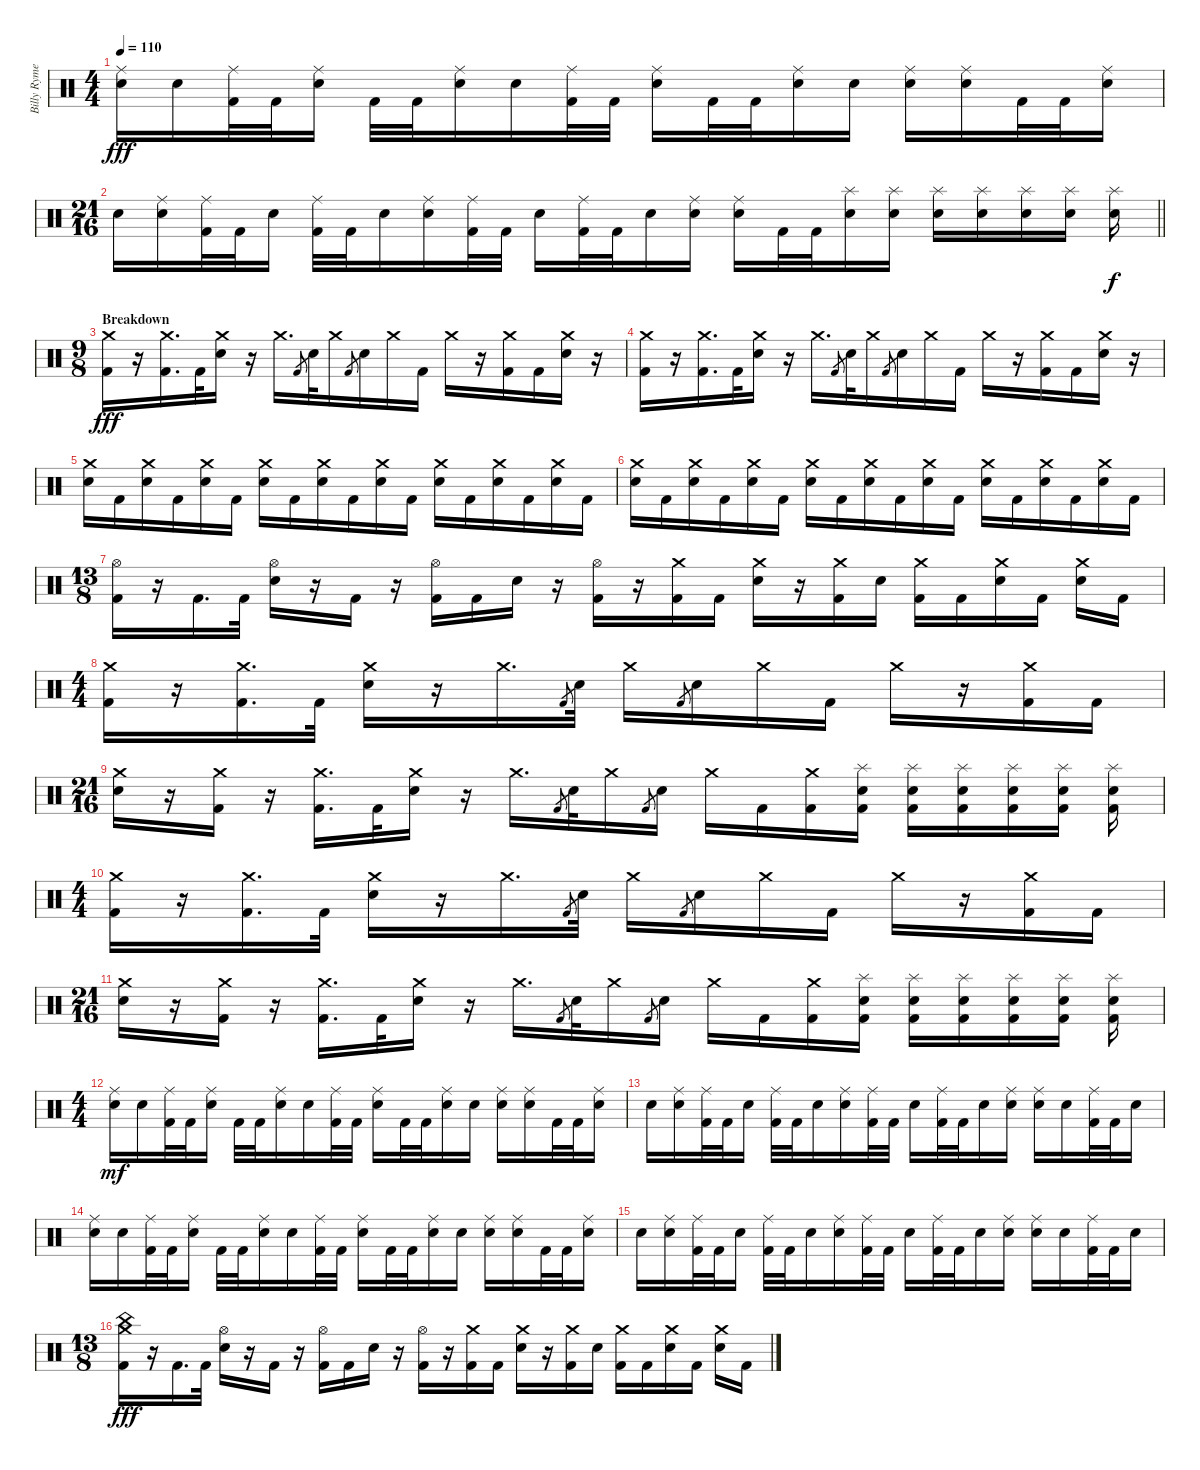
\track ("Billy Rymer" "Billy Ryme") {instrument percussion}
\staff {score}
\articulation defaults
\ts (4 4)
\tempo 110
\clef neutral
\ks c
("Ride (middle)" "Electric Snare (hit)").16{dy fff} "Electric Snare (hit)".16 ("Ride (middle)" "Kick (hit) 2").32 "Kick (hit) 2".32 ("Ride (middle)" "Electric Snare (hit)").16 "Kick (hit) 2".32 "Kick (hit) 2".32 ("Ride (middle)" "Electric Snare (hit)").16 "Electric Snare (hit)".16 ("Ride (middle)" "Kick (hit) 2").32 "Kick (hit) 2".32 ("Ride (middle)" "Electric Snare (hit)").16 "Kick (hit) 2".32 "Kick (hit) 2".32 ("Ride (middle)" "Electric Snare (hit)").16 "Electric Snare (hit)".16 ("Ride (middle)" "Electric Snare (hit)").16 ("Ride (middle)" "Electric Snare (hit)").16 "Kick (hit) 2".32 "Kick (hit) 2".32 ("Ride (middle)" "Electric Snare (hit)").16 |
\ts (21 16)
\barLineRight lightlight "Electric Snare (hit)".16
("Ride (middle)" "Electric Snare (hit)").16 ("Ride (middle)" "Kick (hit) 2").32 "Kick (hit) 2".32 "Electric Snare (hit)".16 ("Ride (middle)" "Kick (hit) 2").32 "Kick (hit) 2".32 "Electric Snare (hit)".16 ("Ride (middle)" "Electric Snare (hit)").16 ("Ride (middle)" "Kick (hit) 2").32 "Kick (hit) 2".32 "Electric Snare (hit)".16 ("Ride (middle)" "Kick (hit) 2").32 "Kick (hit) 2".32 "Electric Snare (hit)".16 ("Ride (middle)" "Electric Snare (hit)").16 ("Ride (middle)" "Electric Snare (hit)").16 "Kick (hit) 2".32 "Kick (hit) 2".32 ("Splash (hit)" "Electric Snare (hit)").16 ("Splash (hit)" "Electric Snare (hit)").16 ("Splash (hit)" "Electric Snare (hit)").16 ("Splash (hit)" "Electric Snare (hit)").16 ("Splash (hit)" "Electric Snare (hit)").16 ("Splash (hit)" "Electric Snare (hit)").16 ("Splash (hit)" "Electric Snare (hit)").16{dy f} |
\ts (9 8)
\section ("" "Breakdown")
("Crash medium (hit)" "Kick (hit) 2").16{dy fff} r.16 ("Crash medium (hit)" "Kick (hit) 2").16{d} "Kick (hit) 2".32 ("Crash medium (hit)" "Electric Snare (hit)").16 r.16 "Crash medium (hit)".16{d} "Kick (hit) 2".8{gr} "Electric Snare (hit)".32 "Crash medium (hit)".16 "Kick (hit) 2".8{gr} "Electric Snare (hit)".16 "Crash medium (hit)".16 "Kick (hit) 2".16 "Crash medium (hit)".16 r.16 ("Crash medium (hit)" "Kick (hit) 2").16 "Kick (hit) 2".16 ("Crash medium (hit)" "Electric Snare (hit)").16 r.16 |
("Crash medium (hit)" "Kick (hit) 2").16 r.16 ("Crash medium (hit)" "Kick (hit) 2").16{d} "Kick (hit) 2".32 ("Crash medium (hit)" "Electric Snare (hit)").16 r.16 "Crash medium (hit)".16{d} "Kick (hit) 2".8{gr} "Electric Snare (hit)".32 "Crash medium (hit)".16 "Kick (hit) 2".8{gr} "Electric Snare (hit)".16 "Crash medium (hit)".16 "Kick (hit) 2".16 "Crash medium (hit)".16 r.16 ("Crash medium (hit)" "Kick (hit) 2").16 "Kick (hit) 2".16 ("Crash medium (hit)" "Electric Snare (hit)").16 r.16 |
("Crash medium (hit)" "Electric Snare (hit)").16 "Kick (hit) 2".16 ("Crash medium (hit)" "Electric Snare (hit)").16 "Kick (hit) 2".16 ("Crash medium (hit)" "Electric Snare (hit)").16 "Kick (hit) 2".16 ("Crash medium (hit)" "Electric Snare (hit)").16 "Kick (hit) 2".16 ("Crash medium (hit)" "Electric Snare (hit)").16 "Kick (hit) 2".16 ("Crash medium (hit)" "Electric Snare (hit)").16 "Kick (hit) 2".16 ("Crash medium (hit)" "Electric Snare (hit)").16 "Kick (hit) 2".16 ("Crash medium (hit)" "Electric Snare (hit)").16 "Kick (hit) 2".16 ("Crash medium (hit)" "Electric Snare (hit)").16 "Kick (hit) 2".16 |
("Crash medium (hit)" "Electric Snare (hit)").16 "Kick (hit) 2".16 ("Crash medium (hit)" "Electric Snare (hit)").16 "Kick (hit) 2".16 ("Crash medium (hit)" "Electric Snare (hit)").16 "Kick (hit) 2".16 ("Crash medium (hit)" "Electric Snare (hit)").16 "Kick (hit) 2".16 ("Crash medium (hit)" "Electric Snare (hit)").16 "Kick (hit) 2".16 ("Crash medium (hit)" "Electric Snare (hit)").16 "Kick (hit) 2".16 ("Crash medium (hit)" "Electric Snare (hit)").16 "Kick (hit) 2".16 ("Crash medium (hit)" "Electric Snare (hit)").16 "Kick (hit) 2".16 ("Crash medium (hit)" "Electric Snare (hit)").16 "Kick (hit) 2".16 |
\ts (13 8)
("Hi-Hat (open)" "Kick (hit) 2").16 r.16 "Kick (hit) 2".16{d} "Kick (hit) 2".32 ("Hi-Hat (open)" "Electric Snare (hit)").16 r.16 "Kick (hit) 2".16 r.16 ("Hi-Hat (open)" "Kick (hit) 2").16 "Kick (hit) 2".16 "Electric Snare (hit)".16 r.16 ("Hi-Hat (open)" "Kick (hit) 2").16 r.16 ("Crash medium (hit)" "Kick (hit) 2").16 "Kick (hit) 2".16 ("Crash medium (hit)" "Electric Snare (hit)").16 r.16 ("Crash medium (hit)" "Kick (hit) 2").16 "Electric Snare (hit)".16 ("Crash medium (hit)" "Kick (hit) 2").16 "Kick (hit) 2".16 ("Crash medium (hit)" "Electric Snare (hit)").16 "Kick (hit) 2".16 ("Crash medium (hit)" "Electric Snare (hit)").16 "Kick (hit) 2".16 |
\ts (4 4)
("Crash medium (hit)" "Kick (hit) 2").16 r.16 ("Crash medium (hit)" "Kick (hit) 2").16{d} "Kick (hit) 2".32 ("Crash medium (hit)" "Electric Snare (hit)").16 r.16 "Crash medium (hit)".16{d} "Kick (hit) 2".8{gr} "Electric Snare (hit)".32 "Crash medium (hit)".16 "Kick (hit) 2".8{gr} "Electric Snare (hit)".16 "Crash medium (hit)".16 "Kick (hit) 2".16 "Crash medium (hit)".16 r.16 ("Crash medium (hit)" "Kick (hit) 2").16 "Kick (hit) 2".16 |
\ts (21 16)
("Crash medium (hit)" "Electric Snare (hit)").16 r.16 ("Crash medium (hit)" "Kick (hit) 2").16 r.16 ("Crash medium (hit)" "Kick (hit) 2").16{d} "Kick (hit) 2".32 ("Crash medium (hit)" "Electric Snare (hit)").16 r.16 "Crash medium (hit)".16{d} "Kick (hit) 2".8{gr} "Electric Snare (hit)".32 "Crash medium (hit)".16 "Kick (hit) 2".8{gr} "Electric Snare (hit)".16 "Crash medium (hit)".16 "Kick (hit) 2".16 ("Crash medium (hit)" "Kick (hit) 2").16 ("Splash (hit)" "Electric Snare (hit)" "Kick (hit) 2").16 ("Splash (hit)" "Electric Snare (hit)" "Kick (hit) 2").16 ("Splash (hit)" "Electric Snare (hit)" "Kick (hit) 2").16 ("Splash (hit)" "Electric Snare (hit)" "Kick (hit) 2").16 ("Splash (hit)" "Electric Snare (hit)" "Kick (hit) 2").16 ("Splash (hit)" "Electric Snare (hit)" "Kick (hit) 2").16 |
\ts (4 4)
("Crash medium (hit)" "Kick (hit) 2").16 r.16 ("Crash medium (hit)" "Kick (hit) 2").16{d} "Kick (hit) 2".32 ("Crash medium (hit)" "Electric Snare (hit)").16 r.16 "Crash medium (hit)".16{d} "Kick (hit) 2".8{gr} "Electric Snare (hit)".32 "Crash medium (hit)".16 "Kick (hit) 2".8{gr} "Electric Snare (hit)".16 "Crash medium (hit)".16 "Kick (hit) 2".16 "Crash medium (hit)".16 r.16 ("Crash medium (hit)" "Kick (hit) 2").16 "Kick (hit) 2".16 |
\ts (21 16)
("Crash medium (hit)" "Electric Snare (hit)").16 r.16 ("Crash medium (hit)" "Kick (hit) 2").16 r.16 ("Crash medium (hit)" "Kick (hit) 2").16{d} "Kick (hit) 2".32 ("Crash medium (hit)" "Electric Snare (hit)").16 r.16 "Crash medium (hit)".16{d} "Kick (hit) 2".8{gr} "Electric Snare (hit)".32 "Crash medium (hit)".16 "Kick (hit) 2".8{gr} "Electric Snare (hit)".16 "Crash medium (hit)".16 "Kick (hit) 2".16 ("Crash medium (hit)" "Kick (hit) 2").16 ("Splash (hit)" "Electric Snare (hit)" "Kick (hit) 2").16 ("Splash (hit)" "Electric Snare (hit)" "Kick (hit) 2").16 ("Splash (hit)" "Electric Snare (hit)" "Kick (hit) 2").16 ("Splash (hit)" "Electric Snare (hit)" "Kick (hit) 2").16 ("Splash (hit)" "Electric Snare (hit)" "Kick (hit) 2").16 ("Splash (hit)" "Electric Snare (hit)" "Kick (hit) 2").16 |
\ts (4 4)
("Ride (middle)" "Electric Snare (hit)").16{dy mf} "Electric Snare (hit)".16 ("Ride (middle)" "Kick (hit) 2").32 "Kick (hit) 2".32 ("Ride (middle)" "Electric Snare (hit)").16 "Kick (hit) 2".32 "Kick (hit) 2".32 ("Ride (middle)" "Electric Snare (hit)").16 "Electric Snare (hit)".16 ("Ride (middle)" "Kick (hit) 2").32 "Kick (hit) 2".32 ("Ride (middle)" "Electric Snare (hit)").16 "Kick (hit) 2".32 "Kick (hit) 2".32 ("Ride (middle)" "Electric Snare (hit)").16 "Electric Snare (hit)".16 ("Ride (middle)" "Electric Snare (hit)").16 ("Ride (middle)" "Electric Snare (hit)").16 "Kick (hit) 2".32 "Kick (hit) 2".32 ("Ride (middle)" "Electric Snare (hit)").16 |
"Electric Snare (hit)".16 ("Ride (middle)" "Electric Snare (hit)").16 ("Ride (middle)" "Kick (hit) 2").32 "Kick (hit) 2".32 "Electric Snare (hit)".16 ("Ride (middle)" "Kick (hit) 2").32 "Kick (hit) 2".32 "Electric Snare (hit)".16 ("Ride (middle)" "Electric Snare (hit)").16 ("Ride (middle)" "Kick (hit) 2").32 "Kick (hit) 2".32 "Electric Snare (hit)".16 ("Ride (middle)" "Kick (hit) 2").32 "Kick (hit) 2".32 "Electric Snare (hit)".16 ("Ride (middle)" "Electric Snare (hit)").16 ("Ride (middle)" "Electric Snare (hit)").16 "Electric Snare (hit)".16 ("Ride (middle)" "Kick (hit) 2").32 "Kick (hit) 2".32 "Electric Snare (hit)".16 |
("Ride (middle)" "Electric Snare (hit)").16 "Electric Snare (hit)".16 ("Ride (middle)" "Kick (hit) 2").32 "Kick (hit) 2".32 ("Ride (middle)" "Electric Snare (hit)").16 "Kick (hit) 2".32 "Kick (hit) 2".32 ("Ride (middle)" "Electric Snare (hit)").16 "Electric Snare (hit)".16 ("Ride (middle)" "Kick (hit) 2").32 "Kick (hit) 2".32 ("Ride (middle)" "Electric Snare (hit)").16 "Kick (hit) 2".32 "Kick (hit) 2".32 ("Ride (middle)" "Electric Snare (hit)").16 "Electric Snare (hit)".16 ("Ride (middle)" "Electric Snare (hit)").16 ("Ride (middle)" "Electric Snare (hit)").16 "Kick (hit) 2".32 "Kick (hit) 2".32 ("Ride (middle)" "Electric Snare (hit)").16 |
"Electric Snare (hit)".16 ("Ride (middle)" "Electric Snare (hit)").16 ("Ride (middle)" "Kick (hit) 2").32 "Kick (hit) 2".32 "Electric Snare (hit)".16 ("Ride (middle)" "Kick (hit) 2").32 "Kick (hit) 2".32 "Electric Snare (hit)".16 ("Ride (middle)" "Electric Snare (hit)").16 ("Ride (middle)" "Kick (hit) 2").32 "Kick (hit) 2".32 "Electric Snare (hit)".16 ("Ride (middle)" "Kick (hit) 2").32 "Kick (hit) 2".32 "Electric Snare (hit)".16 ("Ride (middle)" "Electric Snare (hit)").16 ("Ride (middle)" "Electric Snare (hit)").16 "Electric Snare (hit)".16 ("Ride (middle)" "Kick (hit) 2").32 "Kick (hit) 2".32 "Electric Snare (hit)".16 |
\ts (13 8)
("China (hit)" "Crash medium (hit)" "Kick (hit) 2").16{dy fff} r.16 "Kick (hit) 2".16{d} "Kick (hit) 2".32 ("Hi-Hat (open)" "Electric Snare (hit)").16 r.16 "Kick (hit) 2".16 r.16 ("Hi-Hat (open)" "Kick (hit) 2").16 "Kick (hit) 2".16 "Electric Snare (hit)".16 r.16 ("Hi-Hat (open)" "Kick (hit) 2").16 r.16 ("Crash medium (hit)" "Kick (hit) 2").16 "Kick (hit) 2".16 ("Crash medium (hit)" "Electric Snare (hit)").16 r.16 ("Crash medium (hit)" "Kick (hit) 2").16 "Electric Snare (hit)".16 ("Crash medium (hit)" "Kick (hit) 2").16 "Kick (hit) 2".16 ("Crash medium (hit)" "Electric Snare (hit)").16 "Kick (hit) 2".16 ("Crash medium (hit)" "Electric Snare (hit)").16 "Kick (hit) 2".16
